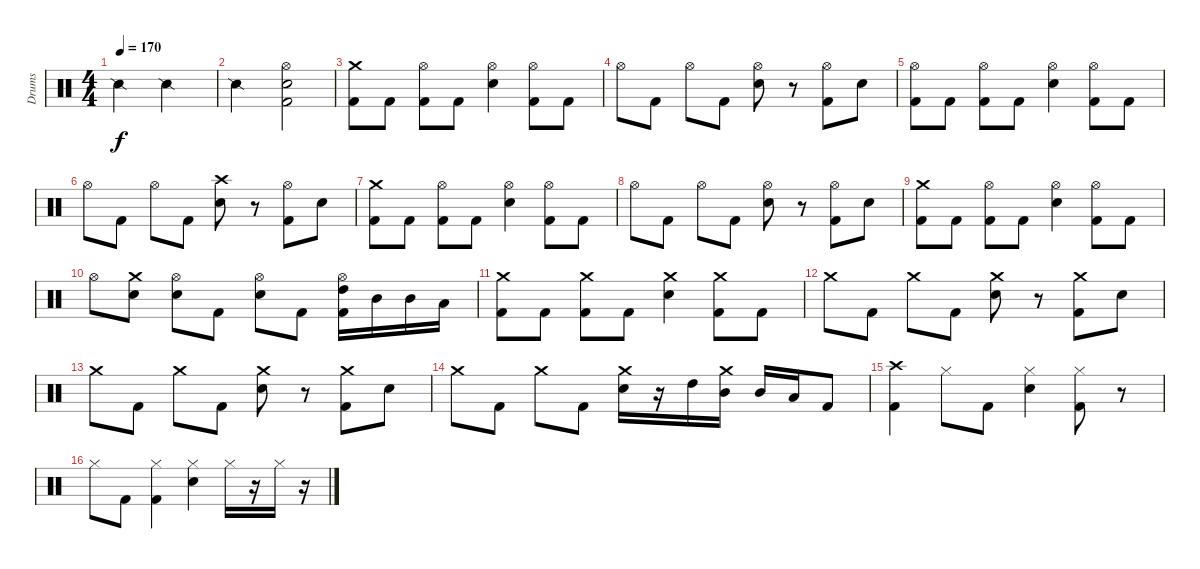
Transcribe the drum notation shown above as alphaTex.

\track ("Drums" "Drums") {instrument percussion}
\staff {score}
\articulation defaults
\ts (4 4)
\tempo 170
\clef neutral
\ks c "Snare (side stick) 2".2{dy f} "Snare (side stick) 2".2
|
"Snare (side stick) 2".2 ("Hi-Hat (open)" "Kick (hit) 2" "Snare (hit) 2").2 |
("Crash medium (hit)" "Kick (hit) 2").8 "Kick (hit) 2".8 ("Hi-Hat (open)" "Kick (hit) 2").8 "Kick (hit) 2".8 ("Hi-Hat (open)" "Snare (hit) 2").4 ("Hi-Hat (open)" "Kick (hit) 2").8 "Kick (hit) 2".8 |
"Hi-Hat (open)".8 "Kick (hit) 2".8 "Hi-Hat (open)".8 "Kick (hit) 2".8 ("Hi-Hat (open)" "Snare (hit) 2").8 r.8 ("Hi-Hat (open)" "Kick (hit) 2").8 "Snare (hit) 2".8 |
("Hi-Hat (open)" "Kick (hit) 2").8 "Kick (hit) 2".8 ("Hi-Hat (open)" "Kick (hit) 2").8 "Kick (hit) 2".8 ("Hi-Hat (open)" "Snare (hit) 2").4 ("Hi-Hat (open)" "Kick (hit) 2").8 "Kick (hit) 2".8 |
"Hi-Hat (open)".8 "Kick (hit) 2".8 "Hi-Hat (open)".8 "Kick (hit) 2".8 ("Crash high (hit)" "Snare (hit) 2").8 r.8 ("Hi-Hat (open)" "Kick (hit) 2").8 "Snare (hit) 2".8 |
("Crash medium (hit)" "Kick (hit) 2").8 "Kick (hit) 2".8 ("Hi-Hat (open)" "Kick (hit) 2").8 "Kick (hit) 2".8 ("Hi-Hat (open)" "Snare (hit) 2").4 ("Hi-Hat (open)" "Kick (hit) 2").8 "Kick (hit) 2".8 |
"Hi-Hat (open)".8 "Kick (hit) 2".8 "Hi-Hat (open)".8 "Kick (hit) 2".8 ("Hi-Hat (open)" "Snare (hit) 2").8 r.8 ("Hi-Hat (open)" "Kick (hit) 2").8 "Snare (hit) 2".8 |
("Crash medium (hit)" "Kick (hit) 2").8 "Kick (hit) 2".8 ("Hi-Hat (open)" "Kick (hit) 2").8 "Kick (hit) 2".8 ("Hi-Hat (open)" "Snare (hit) 2").4 ("Hi-Hat (open)" "Kick (hit) 2").8 "Kick (hit) 2".8 |
"Hi-Hat (open)".8 ("Crash medium (hit)" "Snare (hit) 2").8 ("Hi-Hat (open)" "Snare (hit) 2").8 "Kick (hit) 2".8 ("Hi-Hat (open)" "Snare (hit) 2").8 "Kick (hit) 2".8 ("Hi-Hat (open)" "High Tom (hit)" "Kick (hit) 2").16 "Mid Tom (hit)".16 "Mid Tom (hit)".16 "Low Tom (hit)".16 |
("Crash medium (hit)" "Kick (hit) 2").8 "Kick (hit) 2".8 ("Crash medium (hit)" "Kick (hit) 2").8 "Kick (hit) 2".8 ("Crash medium (hit)" "Snare (hit) 2").4 ("Crash medium (hit)" "Kick (hit) 2").8 "Kick (hit) 2".8 |
"Crash medium (hit)".8 "Kick (hit) 2".8 "Crash medium (hit)".8 "Kick (hit) 2".8 ("Crash medium (hit)" "Snare (hit) 2").8 r.8 ("Crash medium (hit)" "Kick (hit) 2").8 "Snare (hit) 2".8 |
"Crash medium (hit)".8 "Kick (hit) 2".8 "Crash medium (hit)".8 "Kick (hit) 2".8 ("Crash medium (hit)" "Snare (hit) 2").8 r.8 ("Crash medium (hit)" "Kick (hit) 2").8 "Snare (hit) 2".8 |
"Crash medium (hit)".8 "Kick (hit) 2".8 "Crash medium (hit)".8 "Kick (hit) 2".8 ("Crash medium (hit)" "Snare (hit) 2").16 r.16 "High Tom (hit)".16 ("Crash medium (hit)" "Mid Tom (hit)").16 "Mid Tom (hit)".16 "Low Tom (hit)".16 "Kick (hit) 2".8 |
("Crash high (hit)" "Kick (hit) 2").4 "Hi-Hat (closed)".8 "Kick (hit) 2".8 ("Hi-Hat (closed)" "Snare (hit) 2").4 ("Hi-Hat (closed)" "Kick (hit) 2").8 r.8 |
"Hi-Hat (closed)".8 "Kick (hit) 2".8 ("Hi-Hat (closed)" "Kick (hit) 2").4 ("Hi-Hat (closed)" "Snare (hit) 2").4 "Hi-Hat (closed)".16 r.16 "Hi-Hat (closed)".16 r.16
